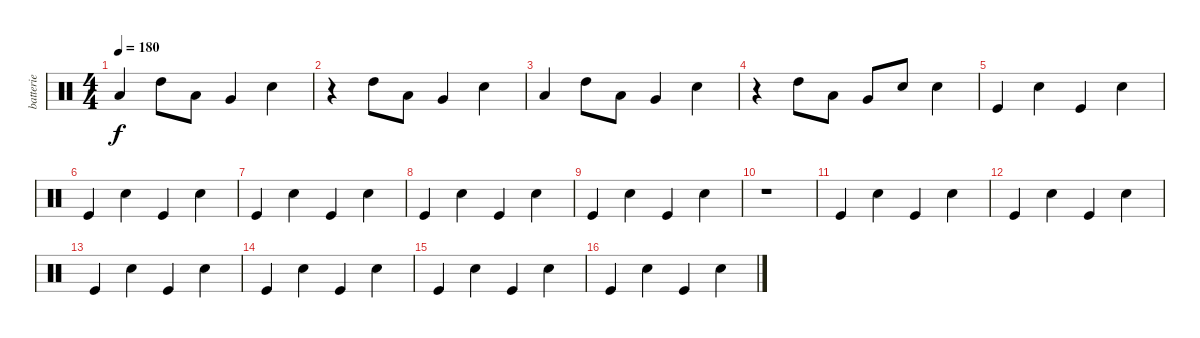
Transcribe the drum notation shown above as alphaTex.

\track ("batterie" "batterie") {instrument percussion}
\staff {score}
\articulation defaults
\ts (4 4)
\tempo 180
\clef neutral
\ks c "Low Floor Tom (hit)".4{dy f} "High Tom (hit)".8 "Low Tom (hit)".8 "Very Low Tom (hit)".4 "Snare (hit) 2".4
|
r.4 "High Tom (hit)".8 "Low Tom (hit)".8 "Very Low Tom (hit)".4 "Snare (hit) 2".4 |
"Low Floor Tom (hit)".4 "High Tom (hit)".8 "Low Tom (hit)".8 "Very Low Tom (hit)".4 "Snare (hit) 2".4 |
r.4 "High Tom (hit)".8 "Low Tom (hit)".8 "Very Low Tom (hit)".8 "Snare (hit) 2".8 "Snare (hit) 2".4 |
"Kick (hit)".4 "Snare (hit) 2".4 "Kick (hit)".4 "Snare (hit) 2".4 |
"Kick (hit)".4 "Snare (hit) 2".4 "Kick (hit)".4 "Snare (hit) 2".4 |
"Kick (hit)".4 "Snare (hit) 2".4 "Kick (hit)".4 "Snare (hit) 2".4 |
"Kick (hit)".4 "Snare (hit) 2".4 "Kick (hit)".4 "Snare (hit) 2".4 |
"Kick (hit)".4 "Snare (hit) 2".4 "Kick (hit)".4 "Snare (hit) 2".4 |
r.1 |
"Kick (hit)".4 "Snare (hit) 2".4 "Kick (hit)".4 "Snare (hit) 2".4 |
"Kick (hit)".4 "Snare (hit) 2".4 "Kick (hit)".4 "Snare (hit) 2".4 |
"Kick (hit)".4 "Snare (hit) 2".4 "Kick (hit)".4 "Snare (hit) 2".4 |
"Kick (hit)".4 "Snare (hit) 2".4 "Kick (hit)".4 "Snare (hit) 2".4 |
"Kick (hit)".4 "Snare (hit) 2".4 "Kick (hit)".4 "Snare (hit) 2".4 |
"Kick (hit)".4 "Snare (hit) 2".4 "Kick (hit)".4 "Snare (hit) 2".4
